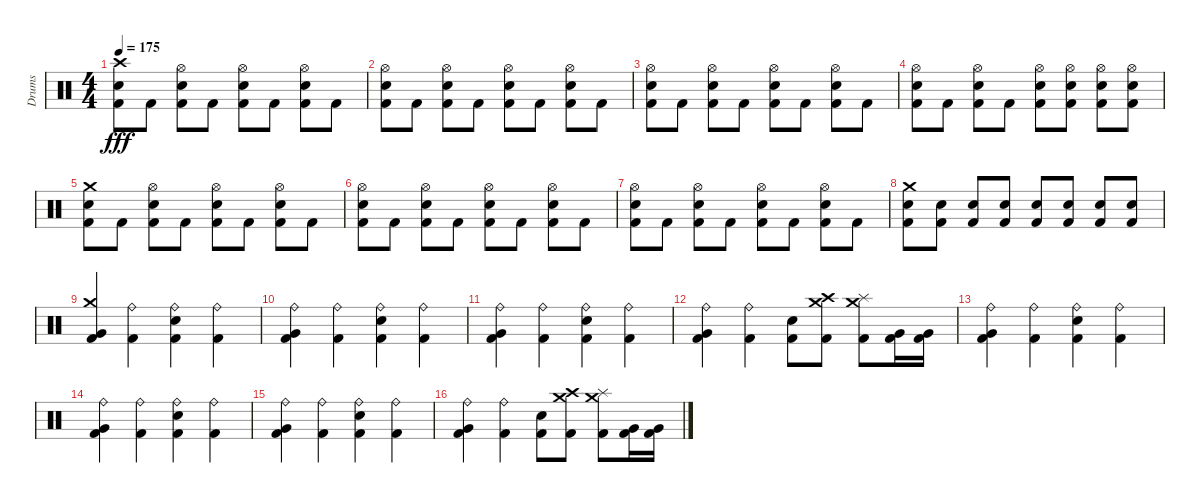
\track ("Drums" "Drums") {instrument percussion}
\staff {score}
\articulation defaults
\ts (4 4)
\tempo 175
\clef neutral
\ks c
("Crash high (hit)" "Electric Snare (hit)" "Kick (hit) 2").8{dy fff} "Kick (hit) 2".8 ("Hi-Hat (open)" "Electric Snare (hit)" "Kick (hit) 2").8 "Kick (hit) 2".8 ("Hi-Hat (open)" "Electric Snare (hit)" "Kick (hit) 2").8 "Kick (hit) 2".8 ("Hi-Hat (open)" "Electric Snare (hit)" "Kick (hit) 2").8 "Kick (hit) 2".8 |
("Hi-Hat (open)" "Electric Snare (hit)" "Kick (hit) 2").8 "Kick (hit) 2".8 ("Hi-Hat (open)" "Electric Snare (hit)" "Kick (hit) 2").8 "Kick (hit) 2".8 ("Hi-Hat (open)" "Electric Snare (hit)" "Kick (hit) 2").8 "Kick (hit) 2".8 ("Hi-Hat (open)" "Electric Snare (hit)" "Kick (hit) 2").8 "Kick (hit) 2".8 |
("Hi-Hat (open)" "Electric Snare (hit)" "Kick (hit) 2").8 "Kick (hit) 2".8 ("Hi-Hat (open)" "Electric Snare (hit)" "Kick (hit) 2").8 "Kick (hit) 2".8 ("Hi-Hat (open)" "Electric Snare (hit)" "Kick (hit) 2").8 "Kick (hit) 2".8 ("Hi-Hat (open)" "Electric Snare (hit)" "Kick (hit) 2").8 "Kick (hit) 2".8 |
("Hi-Hat (open)" "Electric Snare (hit)" "Kick (hit) 2").8 "Kick (hit) 2".8 ("Hi-Hat (open)" "Electric Snare (hit)" "Kick (hit) 2").8 "Kick (hit) 2".8 ("Hi-Hat (open)" "Electric Snare (hit)" "Kick (hit) 2").8 ("Hi-Hat (open)" "Electric Snare (hit)" "Kick (hit) 2").8 ("Hi-Hat (open)" "Electric Snare (hit)" "Kick (hit) 2").8 ("Hi-Hat (open)" "Electric Snare (hit)" "Kick (hit) 2").8 |
("Crash medium (hit)" "Electric Snare (hit)" "Kick (hit) 2").8 "Kick (hit) 2".8 ("Hi-Hat (open)" "Electric Snare (hit)" "Kick (hit) 2").8 "Kick (hit) 2".8 ("Hi-Hat (open)" "Electric Snare (hit)" "Kick (hit) 2").8 "Kick (hit) 2".8 ("Hi-Hat (open)" "Electric Snare (hit)" "Kick (hit) 2").8 "Kick (hit) 2".8 |
("Hi-Hat (open)" "Electric Snare (hit)" "Kick (hit) 2").8 "Kick (hit) 2".8 ("Hi-Hat (open)" "Electric Snare (hit)" "Kick (hit) 2").8 "Kick (hit) 2".8 ("Hi-Hat (open)" "Electric Snare (hit)" "Kick (hit) 2").8 "Kick (hit) 2".8 ("Hi-Hat (open)" "Electric Snare (hit)" "Kick (hit) 2").8 "Kick (hit) 2".8 |
("Hi-Hat (open)" "Electric Snare (hit)" "Kick (hit) 2").8 "Kick (hit) 2".8 ("Hi-Hat (open)" "Electric Snare (hit)" "Kick (hit) 2").8 "Kick (hit) 2".8 ("Hi-Hat (open)" "Electric Snare (hit)" "Kick (hit) 2").8 "Kick (hit) 2".8 ("Hi-Hat (open)" "Electric Snare (hit)" "Kick (hit) 2").8 "Kick (hit) 2".8 |
("Crash medium (hit)" "Electric Snare (hit)" "Kick (hit) 2").8 ("Electric Snare (hit)" "Kick (hit) 2").8 ("Electric Snare (hit)" "Kick (hit) 2").8 ("Electric Snare (hit)" "Kick (hit) 2").8 ("Electric Snare (hit)" "Kick (hit) 2").8 ("Electric Snare (hit)" "Kick (hit) 2").8 ("Electric Snare (hit)" "Kick (hit) 2").8 ("Electric Snare (hit)" "Kick (hit) 2").8 |
("Crash medium (hit)" "Very Low Tom (hit)" "Kick (hit) 2").4 ("Ride (bell)" "Kick (hit) 2").4 ("Ride (bell)" "Electric Snare (hit)" "Kick (hit) 2").4 ("Ride (bell)" "Kick (hit) 2").4 |
("Ride (bell)" "Very Low Tom (hit)" "Kick (hit) 2").4 ("Ride (bell)" "Kick (hit) 2").4 ("Ride (bell)" "Electric Snare (hit)" "Kick (hit) 2").4 ("Ride (bell)" "Kick (hit) 2").4 |
("Ride (bell)" "Very Low Tom (hit)" "Kick (hit) 2").4 ("Ride (bell)" "Kick (hit) 2").4 ("Ride (bell)" "Electric Snare (hit)" "Kick (hit) 2").4 ("Ride (bell)" "Kick (hit) 2").4 |
("Ride (bell)" "Very Low Tom (hit)" "Kick (hit) 2").4 ("Ride (bell)" "Kick (hit) 2").4 ("Electric Snare (hit)" "Kick (hit) 2").8 ("Crash high (hit)" "Crash medium (hit)" "Kick (hit) 2").8 ("Splash (hit)" "Crash medium (hit)" "Kick (hit) 2").8 ("Very Low Tom (hit)" "Kick (hit) 2").16 ("Very Low Tom (hit)" "Kick (hit) 2").16 |
("Ride (bell)" "Very Low Tom (hit)" "Kick (hit) 2").4 ("Ride (bell)" "Kick (hit) 2").4 ("Ride (bell)" "Electric Snare (hit)" "Kick (hit) 2").4 ("Ride (bell)" "Kick (hit) 2").4 |
("Ride (bell)" "Very Low Tom (hit)" "Kick (hit) 2").4 ("Ride (bell)" "Kick (hit) 2").4 ("Ride (bell)" "Electric Snare (hit)" "Kick (hit) 2").4 ("Ride (bell)" "Kick (hit) 2").4 |
("Ride (bell)" "Very Low Tom (hit)" "Kick (hit) 2").4 ("Ride (bell)" "Kick (hit) 2").4 ("Ride (bell)" "Electric Snare (hit)" "Kick (hit) 2").4 ("Ride (bell)" "Kick (hit) 2").4 |
("Ride (bell)" "Very Low Tom (hit)" "Kick (hit) 2").4 ("Ride (bell)" "Kick (hit) 2").4 ("Electric Snare (hit)" "Kick (hit) 2").8 ("Crash high (hit)" "Crash medium (hit)" "Kick (hit) 2").8 ("Splash (hit)" "Crash medium (hit)" "Kick (hit) 2").8 ("Very Low Tom (hit)" "Kick (hit) 2").16 ("Very Low Tom (hit)" "Kick (hit) 2").16
